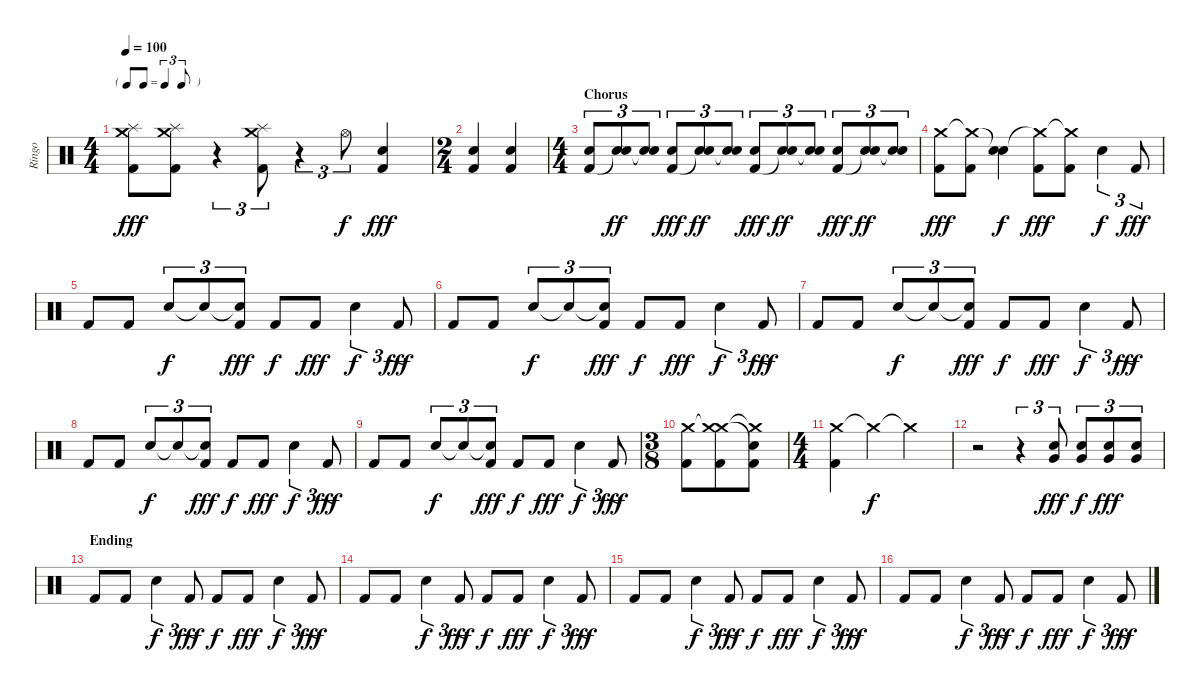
\track ("Ringo" "Ringo") {instrument percussion}
\staff {score}
\articulation defaults
\ts (4 4)
\tf triplet8th
\tempo 100
\clef neutral
\ks c
("Crash medium (hit)" "Splash (hit)" "Kick (hit) 2").8{dy fff} ("Crash medium (hit)" "Splash (hit)" "Kick (hit) 2").8 r.4{tu (3 2)} ("Crash medium (hit)" "Splash (hit)" "Kick (hit) 2").8{tu (3 2)} r.4{tu (3 2)} "Hi-Hat (open)".8{tu (3 2) dy f} ("Snare (hit) 2" "Kick (hit) 2").4{dy fff} |
\ts (2 4)
("Snare (hit) 2" "Kick (hit) 2").4 ("Snare (hit) 2" "Kick (hit) 2").4 |
\ts (4 4)
\section ("" "Chorus")
("Snare (hit) 2" "Kick (hit) 2").8{tu (3 2)} ("Snare (hit) 2" "Snare (hit)"{t}).8{tu (3 2) dy ff} ("Snare (hit) 2" "Snare (hit)"{t}).8{tu (3 2)} ("Snare (hit) 2" "Kick (hit) 2").8{tu (3 2) dy fff} ("Snare (hit) 2" "Snare (hit)"{t}).8{tu (3 2) dy ff} ("Snare (hit) 2" "Snare (hit)"{t}).8{tu (3 2)} ("Snare (hit) 2" "Kick (hit) 2").8{tu (3 2) dy fff} ("Snare (hit) 2" "Snare (hit)"{t}).8{tu (3 2) dy ff} ("Snare (hit) 2" "Snare (hit)"{t}).8{tu (3 2)} ("Snare (hit) 2" "Kick (hit) 2").8{tu (3 2) dy fff} ("Snare (hit) 2" "Snare (hit)"{t}).8{tu (3 2) dy ff} ("Snare (hit) 2" "Snare (hit)"{t}).8{tu (3 2)} |
("Crash medium (hit)" "Kick (hit) 2").8{dy fff} ("Crash medium (hit)"{t} "Kick (hit) 2").8 ("Snare (hit)"{t} "Snare (hit) 2").4{dy f} ("Crash medium (hit)"{t} "Kick (hit) 2").8{dy fff} ("Crash medium (hit)"{t} "Kick (hit) 2").8 "Snare (hit) 2".4{tu (3 2) dy f} "Kick (hit) 2".8{tu (3 2) dy fff} |
"Kick (hit) 2".8 "Kick (hit) 2".8 "Snare (hit) 2".8{tu (3 2) dy f} "Snare (hit)"{t}.8{tu (3 2)} ("Snare (hit)"{t} "Kick (hit) 2").8{tu (3 2) dy fff} "Kick (hit) 2".8{dy f} "Kick (hit) 2".8{dy fff} "Snare (hit) 2".4{tu (3 2) dy f} "Kick (hit) 2".8{tu (3 2) dy fff} |
"Kick (hit) 2".8 "Kick (hit) 2".8 "Snare (hit) 2".8{tu (3 2) dy f} "Snare (hit)"{t}.8{tu (3 2)} ("Snare (hit)"{t} "Kick (hit) 2").8{tu (3 2) dy fff} "Kick (hit) 2".8{dy f} "Kick (hit) 2".8{dy fff} "Snare (hit) 2".4{tu (3 2) dy f} "Kick (hit) 2".8{tu (3 2) dy fff} |
"Kick (hit) 2".8 "Kick (hit) 2".8 "Snare (hit) 2".8{tu (3 2) dy f} "Snare (hit)"{t}.8{tu (3 2)} ("Snare (hit)"{t} "Kick (hit) 2").8{tu (3 2) dy fff} "Kick (hit) 2".8{dy f} "Kick (hit) 2".8{dy fff} "Snare (hit) 2".4{tu (3 2) dy f} "Kick (hit) 2".8{tu (3 2) dy fff} |
"Kick (hit) 2".8 "Kick (hit) 2".8 "Snare (hit) 2".8{tu (3 2) dy f} "Snare (hit)"{t}.8{tu (3 2)} ("Snare (hit)"{t} "Kick (hit) 2").8{tu (3 2) dy fff} "Kick (hit) 2".8{dy f} "Kick (hit) 2".8{dy fff} "Snare (hit) 2".4{tu (3 2) dy f} "Kick (hit) 2".8{tu (3 2) dy fff} |
"Kick (hit) 2".8 "Kick (hit) 2".8 "Snare (hit) 2".8{tu (3 2) dy f} "Snare (hit)"{t}.8{tu (3 2)} ("Snare (hit)"{t} "Kick (hit) 2").8{tu (3 2) dy fff} "Kick (hit) 2".8{dy f} "Kick (hit) 2".8{dy fff} "Snare (hit) 2".4{tu (3 2) dy f} "Kick (hit) 2".8{tu (3 2) dy fff} |
\ts (3 8)
("Crash medium (hit)" "Kick (hit) 2").8 ("Crash medium (hit)"{t} "Crash medium (hit)" "Kick (hit) 2").8 ("Crash medium (hit)"{t} "Snare (hit)"{t} "Kick (hit) 2").8 |
\ts (4 4)
("Crash medium (hit)" "Kick (hit) 2").4 "Crash medium (hit)"{t}.4{dy f} "Crash medium (hit)"{t}.2 |
r.2 r.4{tu (3 2)} ("Snare (hit) 2" "Very Low Tom (hit)").8{tu (3 2) dy fff} ("Snare (hit) 2" "Very Low Tom (hit)").8{tu (3 2) dy f} ("Snare (hit) 2" "Very Low Tom (hit)").8{tu (3 2) dy fff} ("Snare (hit) 2" "Very Low Tom (hit)").8{tu (3 2)} |
\section ("" "Ending")
"Kick (hit) 2".8 "Kick (hit) 2".8 "Snare (hit) 2".4{tu (3 2) dy f} "Kick (hit) 2".8{tu (3 2) dy fff} "Kick (hit) 2".8{dy f} "Kick (hit) 2".8{dy fff} "Snare (hit) 2".4{tu (3 2) dy f} "Kick (hit) 2".8{tu (3 2) dy fff} |
"Kick (hit) 2".8 "Kick (hit) 2".8 "Snare (hit) 2".4{tu (3 2) dy f} "Kick (hit) 2".8{tu (3 2) dy fff} "Kick (hit) 2".8{dy f} "Kick (hit) 2".8{dy fff} "Snare (hit) 2".4{tu (3 2) dy f} "Kick (hit) 2".8{tu (3 2) dy fff} |
"Kick (hit) 2".8 "Kick (hit) 2".8 "Snare (hit) 2".4{tu (3 2) dy f} "Kick (hit) 2".8{tu (3 2) dy fff} "Kick (hit) 2".8{dy f} "Kick (hit) 2".8{dy fff} "Snare (hit) 2".4{tu (3 2) dy f} "Kick (hit) 2".8{tu (3 2) dy fff} |
"Kick (hit) 2".8 "Kick (hit) 2".8 "Snare (hit) 2".4{tu (3 2) dy f} "Kick (hit) 2".8{tu (3 2) dy fff} "Kick (hit) 2".8{dy f} "Kick (hit) 2".8{dy fff} "Snare (hit) 2".4{tu (3 2) dy f} "Kick (hit) 2".8{tu (3 2) dy fff}
